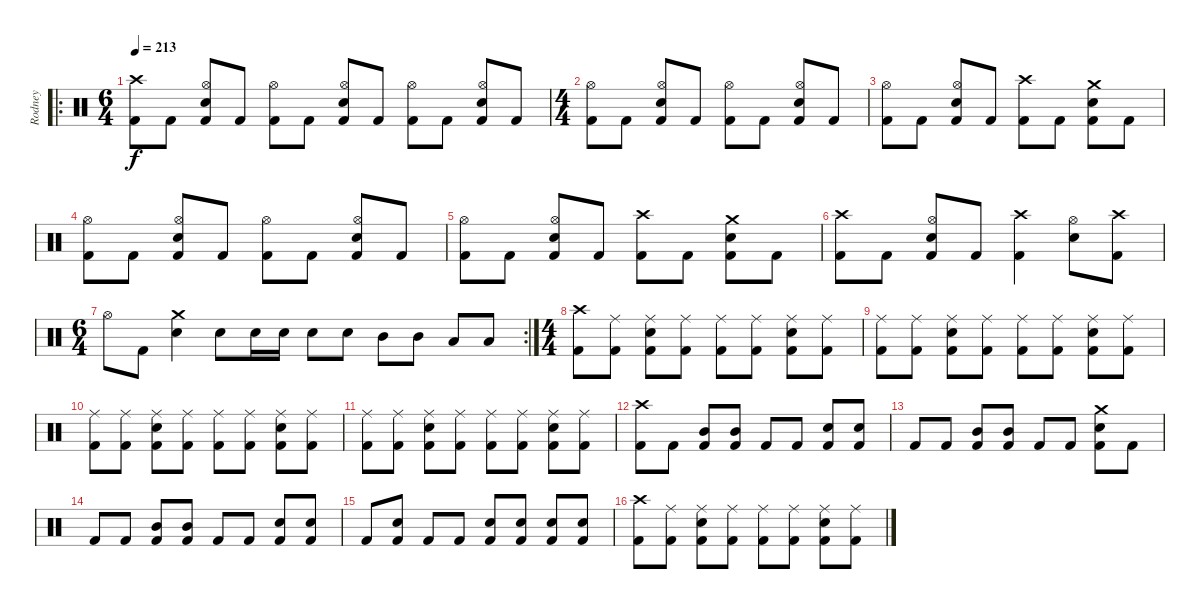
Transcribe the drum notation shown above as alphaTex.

\track ("Rodney" "Rodney") {instrument percussion}
\staff {score}
\articulation defaults
\ro
\ts (6 4)
\tempo 213
\clef neutral
\ks c
("Crash high (hit)" "Kick (hit) 2").8{dy f} "Kick (hit) 2".8 ("Hi-Hat (open)" "Snare (hit) 2" "Kick (hit) 2").8 "Kick (hit) 2".8 ("Hi-Hat (open)" "Kick (hit) 2").8 "Kick (hit) 2".8 ("Hi-Hat (open)" "Snare (hit) 2" "Kick (hit) 2").8 "Kick (hit) 2".8 ("Hi-Hat (open)" "Kick (hit) 2").8 "Kick (hit) 2".8 ("Hi-Hat (open)" "Snare (hit) 2" "Kick (hit) 2").8 "Kick (hit) 2".8 |
\ts (4 4)
("Hi-Hat (open)" "Kick (hit) 2").8 "Kick (hit) 2".8 ("Hi-Hat (open)" "Snare (hit) 2" "Kick (hit) 2").8 "Kick (hit) 2".8 ("Hi-Hat (open)" "Kick (hit) 2").8 "Kick (hit) 2".8 ("Hi-Hat (open)" "Snare (hit) 2" "Kick (hit) 2").8 "Kick (hit) 2".8 |
("Hi-Hat (open)" "Kick (hit) 2").8 "Kick (hit) 2".8 ("Hi-Hat (open)" "Snare (hit) 2" "Kick (hit) 2").8 "Kick (hit) 2".8 ("Crash high (hit)" "Kick (hit) 2").8 "Kick (hit) 2".8 ("Crash medium (hit)" "Snare (hit) 2" "Kick (hit) 2").8 "Kick (hit) 2".8 |
("Hi-Hat (open)" "Kick (hit) 2").8 "Kick (hit) 2".8 ("Hi-Hat (open)" "Snare (hit) 2" "Kick (hit) 2").8 "Kick (hit) 2".8 ("Hi-Hat (open)" "Kick (hit) 2").8 "Kick (hit) 2".8 ("Hi-Hat (open)" "Snare (hit) 2" "Kick (hit) 2").8 "Kick (hit) 2".8 |
("Hi-Hat (open)" "Kick (hit) 2").8 "Kick (hit) 2".8 ("Hi-Hat (open)" "Snare (hit) 2" "Kick (hit) 2").8 "Kick (hit) 2".8 ("Crash high (hit)" "Kick (hit) 2").8 "Kick (hit) 2".8 ("Crash medium (hit)" "Snare (hit) 2" "Kick (hit) 2").8 "Kick (hit) 2".8 |
("Crash high (hit)" "Kick (hit) 2").8 "Kick (hit) 2".8 ("Hi-Hat (open)" "Snare (hit) 2" "Kick (hit) 2").8 "Kick (hit) 2".8 ("Crash high (hit)" "Kick (hit) 2").4 ("Hi-Hat (open)" "Snare (hit) 2").8 ("Crash high (hit)" "Kick (hit) 2").8 |
\rc 2
\ts (6 4)
"Hi-Hat (open)".8 "Kick (hit) 2".8 ("Crash medium (hit)" "Snare (hit) 2").4 "Snare (hit) 2".8 "Snare (hit) 2".16 "Snare (hit) 2".16 "Snare (hit) 2".8 "Snare (hit) 2".8 "Mid Tom (hit)".8 "Mid Tom (hit)".8 "Low Tom (hit)".8 "Low Tom (hit)".8 |
\ts (4 4)
("Crash high (hit)" "Kick (hit) 2").8 ("Ride (middle)" "Kick (hit) 2").8 ("Ride (middle)" "Snare (hit) 2" "Kick (hit) 2").8 ("Ride (middle)" "Kick (hit) 2").8 ("Ride (middle)" "Kick (hit) 2").8 ("Ride (middle)" "Kick (hit) 2").8 ("Ride (middle)" "Snare (hit) 2" "Kick (hit) 2").8 ("Ride (middle)" "Kick (hit) 2").8 |
("Ride (middle)" "Kick (hit) 2").8 ("Ride (middle)" "Kick (hit) 2").8 ("Ride (middle)" "Snare (hit) 2" "Kick (hit) 2").8 ("Ride (middle)" "Kick (hit) 2").8 ("Ride (middle)" "Kick (hit) 2").8 ("Ride (middle)" "Kick (hit) 2").8 ("Ride (middle)" "Snare (hit) 2" "Kick (hit) 2").8 ("Ride (middle)" "Kick (hit) 2").8 |
("Ride (middle)" "Kick (hit) 2").8 ("Ride (middle)" "Kick (hit) 2").8 ("Ride (middle)" "Snare (hit) 2" "Kick (hit) 2").8 ("Ride (middle)" "Kick (hit) 2").8 ("Ride (middle)" "Kick (hit) 2").8 ("Ride (middle)" "Kick (hit) 2").8 ("Ride (middle)" "Snare (hit) 2" "Kick (hit) 2").8 ("Ride (middle)" "Kick (hit) 2").8 |
("Ride (middle)" "Kick (hit) 2").8 ("Ride (middle)" "Kick (hit) 2").8 ("Ride (middle)" "Snare (hit) 2" "Kick (hit) 2").8 ("Ride (middle)" "Kick (hit) 2").8 ("Ride (middle)" "Kick (hit) 2").8 ("Ride (middle)" "Kick (hit) 2").8 ("Ride (middle)" "Snare (hit) 2" "Kick (hit) 2").8 ("Ride (middle)" "Kick (hit) 2").8 |
("Crash high (hit)" "Kick (hit) 2").8 "Kick (hit) 2".8 ("Mid Tom (hit)" "Kick (hit) 2").8 ("Mid Tom (hit)" "Kick (hit) 2").8 "Kick (hit) 2".8 "Kick (hit) 2".8 ("Snare (hit) 2" "Kick (hit) 2").8 ("Snare (hit) 2" "Kick (hit) 2").8 |
"Kick (hit) 2".8 "Kick (hit) 2".8 ("Mid Tom (hit)" "Kick (hit) 2").8 ("Mid Tom (hit)" "Kick (hit) 2").8 "Kick (hit) 2".8 "Kick (hit) 2".8 ("Crash medium (hit)" "Snare (hit) 2" "Kick (hit) 2").8 "Kick (hit) 2".8 |
"Kick (hit) 2".8 "Kick (hit) 2".8 ("Mid Tom (hit)" "Kick (hit) 2").8 ("Mid Tom (hit)" "Kick (hit) 2").8 "Kick (hit) 2".8 "Kick (hit) 2".8 ("Snare (hit) 2" "Kick (hit) 2").8 ("Snare (hit) 2" "Kick (hit) 2").8 |
"Kick (hit) 2".8 ("Snare (hit) 2" "Kick (hit) 2").8 "Kick (hit) 2".8 "Kick (hit) 2".8 ("Snare (hit) 2" "Kick (hit) 2").8 ("Snare (hit) 2" "Kick (hit) 2").8 ("Snare (hit) 2" "Kick (hit) 2").8 ("Snare (hit) 2" "Kick (hit) 2").8 |
("Crash high (hit)" "Kick (hit) 2").8 ("Ride (middle)" "Kick (hit) 2").8 ("Ride (middle)" "Snare (hit) 2" "Kick (hit) 2").8 ("Ride (middle)" "Kick (hit) 2").8 ("Ride (middle)" "Kick (hit) 2").8 ("Ride (middle)" "Kick (hit) 2").8 ("Ride (middle)" "Snare (hit) 2" "Kick (hit) 2").8 ("Ride (middle)" "Kick (hit) 2").8
